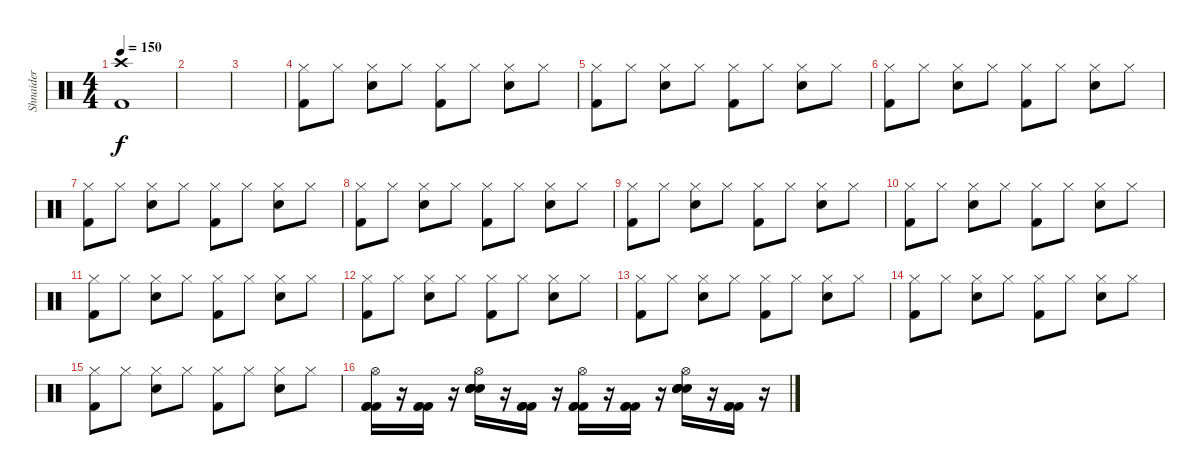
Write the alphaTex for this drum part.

\track ("Shnaider" "Shnaider") {instrument percussion}
\staff {score}
\articulation defaults
\ts (4 4)
\tempo 150
\clef neutral
\ks c
("Crash high (hit)" "Kick (hit) 2").1{dy f} |
|
|
("Kick (hit) 2" "Hi-Hat (closed)").8 "Hi-Hat (closed)".8 ("Electric Snare (hit)" "Hi-Hat (closed)").8 "Hi-Hat (closed)".8 ("Kick (hit) 2" "Hi-Hat (closed)").8 "Hi-Hat (closed)".8 ("Electric Snare (hit)" "Hi-Hat (closed)").8 "Hi-Hat (closed)".8 |
("Kick (hit) 2" "Hi-Hat (closed)").8 "Hi-Hat (closed)".8 ("Electric Snare (hit)" "Hi-Hat (closed)").8 "Hi-Hat (closed)".8 ("Kick (hit) 2" "Hi-Hat (closed)").8 "Hi-Hat (closed)".8 ("Electric Snare (hit)" "Hi-Hat (closed)").8 "Hi-Hat (closed)".8 |
("Kick (hit) 2" "Hi-Hat (closed)").8 "Hi-Hat (closed)".8 ("Electric Snare (hit)" "Hi-Hat (closed)").8 "Hi-Hat (closed)".8 ("Kick (hit) 2" "Hi-Hat (closed)").8 "Hi-Hat (closed)".8 ("Electric Snare (hit)" "Hi-Hat (closed)").8 "Hi-Hat (closed)".8 |
("Kick (hit) 2" "Hi-Hat (closed)").8 "Hi-Hat (closed)".8 ("Electric Snare (hit)" "Hi-Hat (closed)").8 "Hi-Hat (closed)".8 ("Kick (hit) 2" "Hi-Hat (closed)").8 "Hi-Hat (closed)".8 ("Electric Snare (hit)" "Hi-Hat (closed)").8 "Hi-Hat (closed)".8 |
("Kick (hit) 2" "Hi-Hat (closed)").8 "Hi-Hat (closed)".8 ("Electric Snare (hit)" "Hi-Hat (closed)").8 "Hi-Hat (closed)".8 ("Kick (hit) 2" "Hi-Hat (closed)").8 "Hi-Hat (closed)".8 ("Electric Snare (hit)" "Hi-Hat (closed)").8 "Hi-Hat (closed)".8 |
("Kick (hit) 2" "Hi-Hat (closed)").8 "Hi-Hat (closed)".8 ("Electric Snare (hit)" "Hi-Hat (closed)").8 "Hi-Hat (closed)".8 ("Kick (hit) 2" "Hi-Hat (closed)").8 "Hi-Hat (closed)".8 ("Electric Snare (hit)" "Hi-Hat (closed)").8 "Hi-Hat (closed)".8 |
("Kick (hit) 2" "Hi-Hat (closed)").8 "Hi-Hat (closed)".8 ("Electric Snare (hit)" "Hi-Hat (closed)").8 "Hi-Hat (closed)".8 ("Kick (hit) 2" "Hi-Hat (closed)").8 "Hi-Hat (closed)".8 ("Electric Snare (hit)" "Hi-Hat (closed)").8 "Hi-Hat (closed)".8 |
("Kick (hit) 2" "Hi-Hat (closed)").8 "Hi-Hat (closed)".8 ("Electric Snare (hit)" "Hi-Hat (closed)").8 "Hi-Hat (closed)".8 ("Kick (hit) 2" "Hi-Hat (closed)").8 "Hi-Hat (closed)".8 ("Electric Snare (hit)" "Hi-Hat (closed)").8 "Hi-Hat (closed)".8 |
("Kick (hit) 2" "Hi-Hat (closed)").8 "Hi-Hat (closed)".8 ("Electric Snare (hit)" "Hi-Hat (closed)").8 "Hi-Hat (closed)".8 ("Kick (hit) 2" "Hi-Hat (closed)").8 "Hi-Hat (closed)".8 ("Electric Snare (hit)" "Hi-Hat (closed)").8 "Hi-Hat (closed)".8 |
("Kick (hit) 2" "Hi-Hat (closed)").8 "Hi-Hat (closed)".8 ("Electric Snare (hit)" "Hi-Hat (closed)").8 "Hi-Hat (closed)".8 ("Kick (hit) 2" "Hi-Hat (closed)").8 "Hi-Hat (closed)".8 ("Electric Snare (hit)" "Hi-Hat (closed)").8 "Hi-Hat (closed)".8 |
("Kick (hit) 2" "Hi-Hat (closed)").8 "Hi-Hat (closed)".8 ("Electric Snare (hit)" "Hi-Hat (closed)").8 "Hi-Hat (closed)".8 ("Kick (hit) 2" "Hi-Hat (closed)").8 "Hi-Hat (closed)".8 ("Electric Snare (hit)" "Hi-Hat (closed)").8 "Hi-Hat (closed)".8 |
("Kick (hit) 2" "Hi-Hat (closed)").8 "Hi-Hat (closed)".8 ("Electric Snare (hit)" "Hi-Hat (closed)").8 "Hi-Hat (closed)".8 ("Kick (hit) 2" "Hi-Hat (closed)").8 "Hi-Hat (closed)".8 ("Electric Snare (hit)" "Hi-Hat (closed)").8 "Hi-Hat (closed)".8 |
("Kick (hit) 2" "Kick (hit) 2" "Kick (hit) 2" "Hi-Hat (open)").16 r.16 ("Kick (hit) 2" "Kick (hit) 2" "Kick (hit) 2").16 r.16 ("Electric Snare (hit)" "Electric Snare (hit)" "Electric Snare (hit)" "Electric Snare (hit)" "Hi-Hat (open)").16 r.16 ("Kick (hit) 2" "Kick (hit) 2" "Kick (hit) 2").16 r.16 ("Kick (hit) 2" "Kick (hit) 2" "Kick (hit) 2" "Hi-Hat (open)").16 r.16 ("Kick (hit) 2" "Kick (hit) 2" "Kick (hit) 2").16 r.16 ("Electric Snare (hit)" "Electric Snare (hit)" "Electric Snare (hit)" "Electric Snare (hit)" "Hi-Hat (open)").16 r.16 ("Kick (hit) 2" "Kick (hit) 2" "Kick (hit) 2").16 r.16
